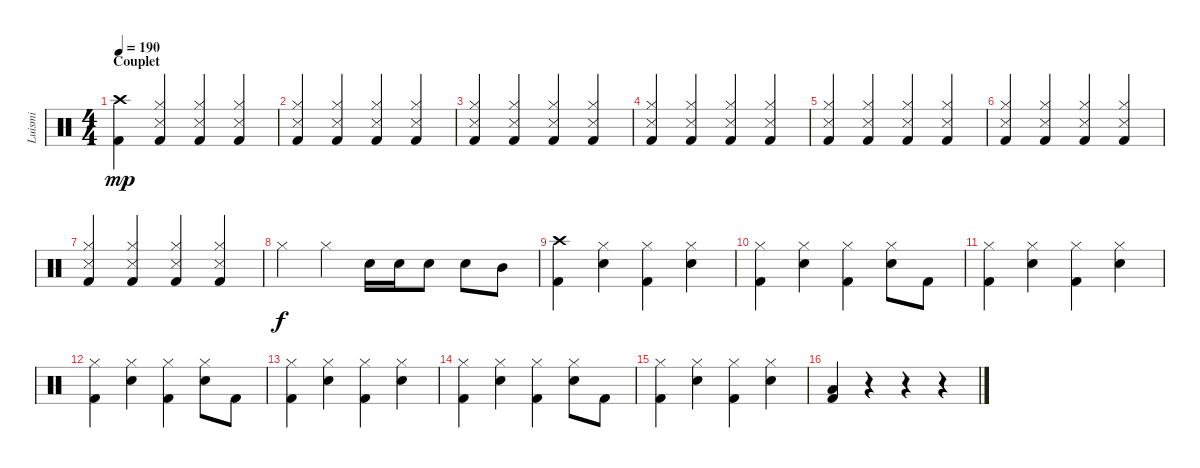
\track ("Luismi" "Luismi") {instrument percussion}
\staff {score}
\articulation defaults
\ts (4 4)
\section ("" "Couplet")
\tempo 190
\clef neutral
\ks c
("Crash high (hit)" "Kick (hit) 2").4{dy mp} ("Hi-Hat (closed)" "Snare (side stick) 3" "Kick (hit) 2").4 ("Hi-Hat (closed)" "Snare (side stick) 3" "Kick (hit) 2").4 ("Hi-Hat (closed)" "Snare (side stick) 3" "Kick (hit) 2").4 |
("Hi-Hat (closed)" "Snare (side stick) 3" "Kick (hit) 2").4 ("Hi-Hat (closed)" "Snare (side stick) 3" "Kick (hit) 2").4 ("Hi-Hat (closed)" "Snare (side stick) 3" "Kick (hit) 2").4 ("Hi-Hat (closed)" "Snare (side stick) 3" "Kick (hit) 2").4 |
("Hi-Hat (closed)" "Snare (side stick) 3" "Kick (hit) 2").4 ("Hi-Hat (closed)" "Snare (side stick) 3" "Kick (hit) 2").4 ("Hi-Hat (closed)" "Snare (side stick) 3" "Kick (hit) 2").4 ("Hi-Hat (closed)" "Snare (side stick) 3" "Kick (hit) 2").4 |
("Hi-Hat (closed)" "Snare (side stick) 3" "Kick (hit) 2").4 ("Hi-Hat (closed)" "Snare (side stick) 3" "Kick (hit) 2").4 ("Hi-Hat (closed)" "Snare (side stick) 3" "Kick (hit) 2").4 ("Hi-Hat (closed)" "Snare (side stick) 3" "Kick (hit) 2").4 |
("Hi-Hat (closed)" "Snare (side stick) 3" "Kick (hit) 2").4 ("Hi-Hat (closed)" "Snare (side stick) 3" "Kick (hit) 2").4 ("Hi-Hat (closed)" "Snare (side stick) 3" "Kick (hit) 2").4 ("Hi-Hat (closed)" "Snare (side stick) 3" "Kick (hit) 2").4 |
("Hi-Hat (closed)" "Snare (side stick) 3" "Kick (hit) 2").4 ("Hi-Hat (closed)" "Snare (side stick) 3" "Kick (hit) 2").4 ("Hi-Hat (closed)" "Snare (side stick) 3" "Kick (hit) 2").4 ("Hi-Hat (closed)" "Snare (side stick) 3" "Kick (hit) 2").4 |
("Hi-Hat (closed)" "Snare (side stick) 3" "Kick (hit) 2").4 ("Hi-Hat (closed)" "Snare (side stick) 3" "Kick (hit) 2").4 ("Hi-Hat (closed)" "Snare (side stick) 3" "Kick (hit) 2").4 ("Hi-Hat (closed)" "Snare (side stick) 3" "Kick (hit) 2").4 |
"Hi-Hat (closed)".4{dy f} "Hi-Hat (closed)".4 "Electric Snare (hit)".16 "Electric Snare (hit)".16 "Electric Snare (hit)".8 "Electric Snare (hit)".8 "Mid Tom (hit)".8 |
("Crash high (hit)" "Kick (hit) 2").4 ("Hi-Hat (closed)" "Electric Snare (hit)").4 ("Hi-Hat (closed)" "Kick (hit) 2").4 ("Hi-Hat (closed)" "Electric Snare (hit)").4 |
("Hi-Hat (closed)" "Kick (hit) 2").4 ("Hi-Hat (closed)" "Electric Snare (hit)").4 ("Hi-Hat (closed)" "Kick (hit) 2").4 ("Hi-Hat (closed)" "Electric Snare (hit)").8 "Kick (hit) 2".8 |
("Hi-Hat (closed)" "Kick (hit) 2").4 ("Hi-Hat (closed)" "Electric Snare (hit)").4 ("Hi-Hat (closed)" "Kick (hit) 2").4 ("Hi-Hat (closed)" "Electric Snare (hit)").4 |
("Hi-Hat (closed)" "Kick (hit) 2").4 ("Hi-Hat (closed)" "Electric Snare (hit)").4 ("Hi-Hat (closed)" "Kick (hit) 2").4 ("Hi-Hat (closed)" "Electric Snare (hit)").8 "Kick (hit) 2".8 |
("Hi-Hat (closed)" "Kick (hit) 2").4 ("Hi-Hat (closed)" "Electric Snare (hit)").4 ("Hi-Hat (closed)" "Kick (hit) 2").4 ("Hi-Hat (closed)" "Electric Snare (hit)").4 |
("Hi-Hat (closed)" "Kick (hit) 2").4 ("Hi-Hat (closed)" "Electric Snare (hit)").4 ("Hi-Hat (closed)" "Kick (hit) 2").4 ("Hi-Hat (closed)" "Electric Snare (hit)").8 "Kick (hit) 2".8 |
("Hi-Hat (closed)" "Kick (hit) 2").4 ("Hi-Hat (closed)" "Electric Snare (hit)").4 ("Hi-Hat (closed)" "Kick (hit) 2").4 ("Hi-Hat (closed)" "Electric Snare (hit)").4 |
("Low Floor Tom (hit)" "Kick (hit) 2").4 r.4 r.4 r.4
